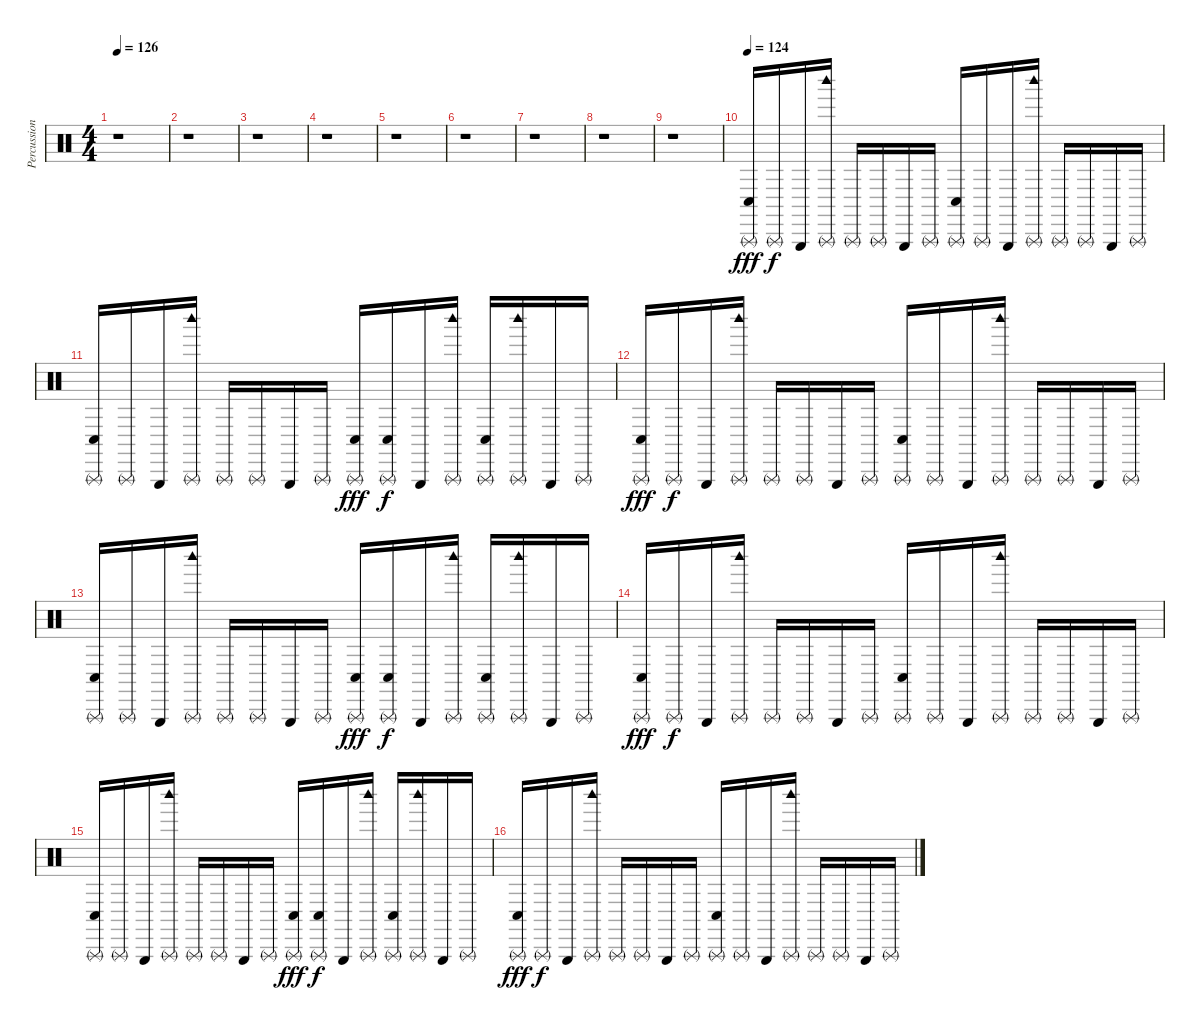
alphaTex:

\track ("Percussion" "Percussion") {instrument percussion}
\staff {score}
\articulation defaults
\ts (4 4)
\tempo 126
\clef neutral
\ks c
r.1{dy f} |
r.1 |
r.1 |
r.1 |
r.1 |
r.1 |
r.1 |
r.1 |
r.1 |
\tempo 124
("Conga low (hit)" "Triangle (rnute)").16{dy fff} "Triangle (rnute)".16{dy f} "Triangle (hit)".16 ("Woodblock high (hit)" "Triangle (rnute)").16 "Triangle (rnute)".16 "Triangle (rnute)".16 "Triangle (hit)".16 "Triangle (rnute)".16 ("Conga low (hit)" "Triangle (rnute)").16 "Triangle (rnute)".16 "Triangle (hit)".16 ("Woodblock high (hit)" "Triangle (rnute)").16 "Triangle (rnute)".16 "Triangle (rnute)".16 "Triangle (hit)".16 "Triangle (rnute)".16 |
("Conga low (hit)" "Triangle (rnute)").16 "Triangle (rnute)".16 "Triangle (hit)".16 ("Woodblock high (hit)" "Triangle (rnute)").16 "Triangle (rnute)".16 "Triangle (rnute)".16 "Triangle (hit)".16 "Triangle (rnute)".16 ("Conga low (hit)" "Triangle (rnute)").16{dy fff} ("Conga low (hit)" "Triangle (rnute)").16{dy f} "Triangle (hit)".16 ("Woodblock high (hit)" "Triangle (rnute)").16 ("Conga low (hit)" "Triangle (rnute)").16 ("Woodblock high (hit)" "Triangle (rnute)").16 "Triangle (hit)".16 "Triangle (rnute)".16 |
("Conga low (hit)" "Triangle (rnute)").16{dy fff} "Triangle (rnute)".16{dy f} "Triangle (hit)".16 ("Woodblock high (hit)" "Triangle (rnute)").16 "Triangle (rnute)".16 "Triangle (rnute)".16 "Triangle (hit)".16 "Triangle (rnute)".16 ("Conga low (hit)" "Triangle (rnute)").16 "Triangle (rnute)".16 "Triangle (hit)".16 ("Woodblock high (hit)" "Triangle (rnute)").16 "Triangle (rnute)".16 "Triangle (rnute)".16 "Triangle (hit)".16 "Triangle (rnute)".16 |
("Conga low (hit)" "Triangle (rnute)").16 "Triangle (rnute)".16 "Triangle (hit)".16 ("Woodblock high (hit)" "Triangle (rnute)").16 "Triangle (rnute)".16 "Triangle (rnute)".16 "Triangle (hit)".16 "Triangle (rnute)".16 ("Conga low (hit)" "Triangle (rnute)").16{dy fff} ("Conga low (hit)" "Triangle (rnute)").16{dy f} "Triangle (hit)".16 ("Woodblock high (hit)" "Triangle (rnute)").16 ("Conga low (hit)" "Triangle (rnute)").16 ("Woodblock high (hit)" "Triangle (rnute)").16 "Triangle (hit)".16 "Triangle (rnute)".16 |
("Conga low (hit)" "Triangle (rnute)").16{dy fff} "Triangle (rnute)".16{dy f} "Triangle (hit)".16 ("Woodblock high (hit)" "Triangle (rnute)").16 "Triangle (rnute)".16 "Triangle (rnute)".16 "Triangle (hit)".16 "Triangle (rnute)".16 ("Conga low (hit)" "Triangle (rnute)").16 "Triangle (rnute)".16 "Triangle (hit)".16 ("Woodblock high (hit)" "Triangle (rnute)").16 "Triangle (rnute)".16 "Triangle (rnute)".16 "Triangle (hit)".16 "Triangle (rnute)".16 |
("Conga low (hit)" "Triangle (rnute)").16 "Triangle (rnute)".16 "Triangle (hit)".16 ("Woodblock high (hit)" "Triangle (rnute)").16 "Triangle (rnute)".16 "Triangle (rnute)".16 "Triangle (hit)".16 "Triangle (rnute)".16 ("Conga low (hit)" "Triangle (rnute)").16{dy fff} ("Conga low (hit)" "Triangle (rnute)").16{dy f} "Triangle (hit)".16 ("Woodblock high (hit)" "Triangle (rnute)").16 ("Conga low (hit)" "Triangle (rnute)").16 ("Woodblock high (hit)" "Triangle (rnute)").16 "Triangle (hit)".16 "Triangle (rnute)".16 |
("Conga low (hit)" "Triangle (rnute)").16{dy fff} "Triangle (rnute)".16{dy f} "Triangle (hit)".16 ("Woodblock high (hit)" "Triangle (rnute)").16 "Triangle (rnute)".16 "Triangle (rnute)".16 "Triangle (hit)".16 "Triangle (rnute)".16 ("Conga low (hit)" "Triangle (rnute)").16 "Triangle (rnute)".16 "Triangle (hit)".16 ("Woodblock high (hit)" "Triangle (rnute)").16 "Triangle (rnute)".16 "Triangle (rnute)".16 "Triangle (hit)".16 "Triangle (rnute)".16
